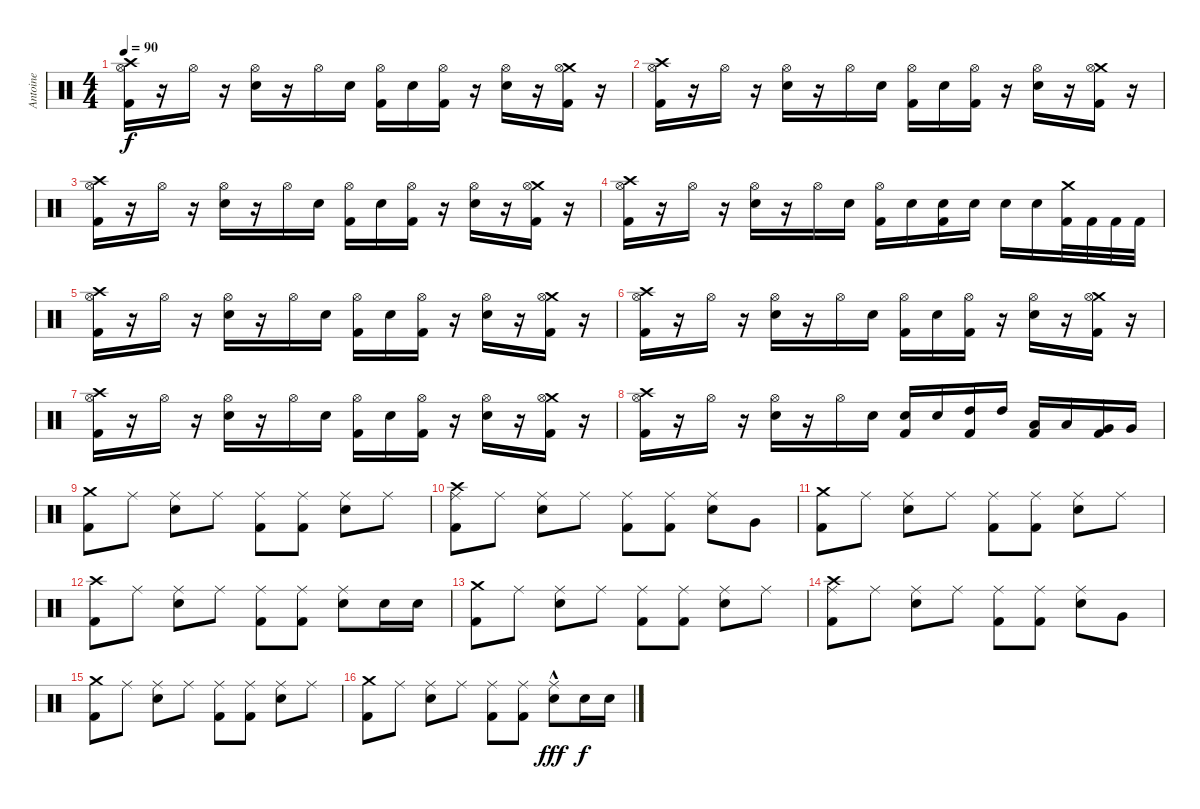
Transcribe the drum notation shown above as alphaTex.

\track ("Antoine" "Antoine") {instrument percussion}
\staff {score}
\articulation defaults
\ts (4 4)
\tempo 90
\clef neutral
\ks c
("Crash high (hit)" "Hi-Hat (open)" "Kick (hit) 2").16{dy f} r.16 "Hi-Hat (open)".16 r.16 ("Hi-Hat (open)" "Electric Snare (hit)").16 r.16 "Hi-Hat (open)".16 "Electric Snare (hit)".16 ("Hi-Hat (open)" "Kick (hit) 2").16 "Electric Snare (hit)".16 ("Hi-Hat (open)" "Kick (hit) 2").16 r.16 ("Hi-Hat (open)" "Electric Snare (hit)").16 r.16 ("Crash medium (hit)" "Hi-Hat (open)" "Kick (hit) 2").16 r.16 |
("Crash high (hit)" "Hi-Hat (open)" "Kick (hit) 2").16 r.16 "Hi-Hat (open)".16 r.16 ("Hi-Hat (open)" "Electric Snare (hit)").16 r.16 "Hi-Hat (open)".16 "Electric Snare (hit)".16 ("Hi-Hat (open)" "Kick (hit) 2").16 "Electric Snare (hit)".16 ("Hi-Hat (open)" "Kick (hit) 2").16 r.16 ("Hi-Hat (open)" "Electric Snare (hit)").16 r.16 ("Crash medium (hit)" "Hi-Hat (open)" "Kick (hit) 2").16 r.16 |
("Crash high (hit)" "Hi-Hat (open)" "Kick (hit) 2").16 r.16 "Hi-Hat (open)".16 r.16 ("Hi-Hat (open)" "Electric Snare (hit)").16 r.16 "Hi-Hat (open)".16 "Electric Snare (hit)".16 ("Hi-Hat (open)" "Kick (hit) 2").16 "Electric Snare (hit)".16 ("Hi-Hat (open)" "Kick (hit) 2").16 r.16 ("Hi-Hat (open)" "Electric Snare (hit)").16 r.16 ("Crash medium (hit)" "Hi-Hat (open)" "Kick (hit) 2").16 r.16 |
("Crash high (hit)" "Hi-Hat (open)" "Kick (hit) 2").16 r.16 "Hi-Hat (open)".16 r.16 ("Hi-Hat (open)" "Electric Snare (hit)").16 r.16 "Hi-Hat (open)".16 "Electric Snare (hit)".16 ("Hi-Hat (open)" "Kick (hit) 2").16 "Electric Snare (hit)".16 ("Electric Snare (hit)" "Kick (hit) 2").16 "Electric Snare (hit)".16 "Electric Snare (hit)".16 "Electric Snare (hit)".16 ("Crash medium (hit)" "Kick (hit) 2").32 "Kick (hit) 2".32 "Kick (hit) 2".32 "Kick (hit) 2".32 |
("Crash high (hit)" "Hi-Hat (open)" "Kick (hit) 2").16 r.16 "Hi-Hat (open)".16 r.16 ("Hi-Hat (open)" "Electric Snare (hit)").16 r.16 "Hi-Hat (open)".16 "Electric Snare (hit)".16 ("Hi-Hat (open)" "Kick (hit) 2").16 "Electric Snare (hit)".16 ("Hi-Hat (open)" "Kick (hit) 2").16 r.16 ("Hi-Hat (open)" "Electric Snare (hit)").16 r.16 ("Crash medium (hit)" "Hi-Hat (open)" "Kick (hit) 2").16 r.16 |
("Crash high (hit)" "Hi-Hat (open)" "Kick (hit) 2").16 r.16 "Hi-Hat (open)".16 r.16 ("Hi-Hat (open)" "Electric Snare (hit)").16 r.16 "Hi-Hat (open)".16 "Electric Snare (hit)".16 ("Hi-Hat (open)" "Kick (hit) 2").16 "Electric Snare (hit)".16 ("Hi-Hat (open)" "Kick (hit) 2").16 r.16 ("Hi-Hat (open)" "Electric Snare (hit)").16 r.16 ("Crash medium (hit)" "Hi-Hat (open)" "Kick (hit) 2").16 r.16 |
("Crash high (hit)" "Hi-Hat (open)" "Kick (hit) 2").16 r.16 "Hi-Hat (open)".16 r.16 ("Hi-Hat (open)" "Electric Snare (hit)").16 r.16 "Hi-Hat (open)".16 "Electric Snare (hit)".16 ("Hi-Hat (open)" "Kick (hit) 2").16 "Electric Snare (hit)".16 ("Hi-Hat (open)" "Kick (hit) 2").16 r.16 ("Hi-Hat (open)" "Electric Snare (hit)").16 r.16 ("Crash medium (hit)" "Hi-Hat (open)" "Kick (hit) 2").16 r.16 |
("Crash high (hit)" "Hi-Hat (open)" "Kick (hit) 2").16 r.16 "Hi-Hat (open)".16 r.16 ("Hi-Hat (open)" "Electric Snare (hit)").16 r.16 "Hi-Hat (open)".16 "Electric Snare (hit)".16 ("Electric Snare (hit)" "Kick (hit) 2").16 "Electric Snare (hit)".16 ("High Tom (hit)" "Kick (hit) 2").16 "High Tom (hit)".16 ("Low Tom (hit)" "Kick (hit) 2").16 "Low Tom (hit)".16 ("Very Low Tom (hit)" "Kick (hit) 2").16 "Very Low Tom (hit)".16 |
("Crash medium (hit)" "Kick (hit) 2").8 "Ride (middle)".8 ("Ride (middle)" "Electric Snare (hit)").8 "Ride (middle)".8 ("Ride (middle)" "Kick (hit) 2").8 ("Ride (middle)" "Kick (hit) 2").8 ("Ride (middle)" "Electric Snare (hit)").8 "Ride (middle)".8 |
("Crash high (hit)" "Ride (middle)" "Kick (hit) 2").8 "Ride (middle)".8 ("Ride (middle)" "Electric Snare (hit)").8 "Ride (middle)".8 ("Ride (middle)" "Kick (hit) 2").8 ("Ride (middle)" "Kick (hit) 2").8 ("Ride (middle)" "Electric Snare (hit)").8 "Very Low Tom (hit)".8 |
("Crash medium (hit)" "Kick (hit) 2").8 "Ride (middle)".8 ("Ride (middle)" "Electric Snare (hit)").8 "Ride (middle)".8 ("Ride (middle)" "Kick (hit) 2").8 ("Ride (middle)" "Kick (hit) 2").8 ("Ride (middle)" "Electric Snare (hit)").8 "Ride (middle)".8 |
("Crash high (hit)" "Kick (hit) 2").8 "Ride (middle)".8 ("Ride (middle)" "Electric Snare (hit)").8 "Ride (middle)".8 ("Ride (middle)" "Kick (hit) 2").8 ("Ride (middle)" "Kick (hit) 2").8 ("Ride (middle)" "Electric Snare (hit)").8 "Electric Snare (hit)".16 "Electric Snare (hit)".16 |
("Crash medium (hit)" "Kick (hit) 2").8 "Ride (middle)".8 ("Ride (middle)" "Electric Snare (hit)").8 "Ride (middle)".8 ("Ride (middle)" "Kick (hit) 2").8 ("Ride (middle)" "Kick (hit) 2").8 ("Ride (middle)" "Electric Snare (hit)").8 "Ride (middle)".8 |
("Crash high (hit)" "Ride (middle)" "Kick (hit) 2").8 "Ride (middle)".8 ("Ride (middle)" "Electric Snare (hit)").8 "Ride (middle)".8 ("Ride (middle)" "Kick (hit) 2").8 ("Ride (middle)" "Kick (hit) 2").8 ("Ride (middle)" "Electric Snare (hit)").8 "Very Low Tom (hit)".8 |
("Crash medium (hit)" "Kick (hit) 2").8 "Ride (middle)".8 ("Ride (middle)" "Electric Snare (hit)").8 "Ride (middle)".8 ("Ride (middle)" "Kick (hit) 2").8 ("Ride (middle)" "Kick (hit) 2").8 ("Ride (middle)" "Electric Snare (hit)").8 "Ride (middle)".8 |
("Crash medium (hit)" "Kick (hit) 2").8 "Ride (middle)".8 ("Ride (middle)" "Electric Snare (hit)").8 "Ride (middle)".8 ("Ride (middle)" "Kick (hit) 2").8 ("Ride (middle)" "Kick (hit) 2").8 ("Ride (middle)" "Electric Snare (hit)"{hac}).8{dy fff} "Electric Snare (hit)".16{dy f} "Electric Snare (hit)".16
